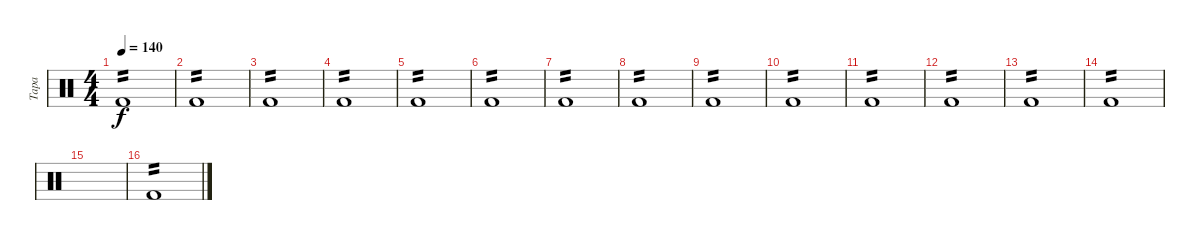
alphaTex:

\track ("Tapa" "Tapa") {instrument percussion}
\staff {score}
\articulation defaults
\ts (4 4)
\tempo 140
\clef neutral
\ks c "Kick (hit) 2".1{tp 2 dy f}
|
"Kick (hit) 2".1{tp 2} |
"Kick (hit) 2".1{tp 2} |
"Kick (hit) 2".1{tp 2} |
"Kick (hit) 2".1{tp 2} |
"Kick (hit) 2".1{tp 2} |
"Kick (hit) 2".1{tp 2} |
"Kick (hit) 2".1{tp 2} |
"Kick (hit) 2".1{tp 2} |
"Kick (hit) 2".1{tp 2} |
"Kick (hit) 2".1{tp 2} |
"Kick (hit) 2".1{tp 2} |
"Kick (hit) 2".1{tp 2} |
"Kick (hit) 2".1{tp 2} |
|
"Kick (hit) 2".1{tp 2}
